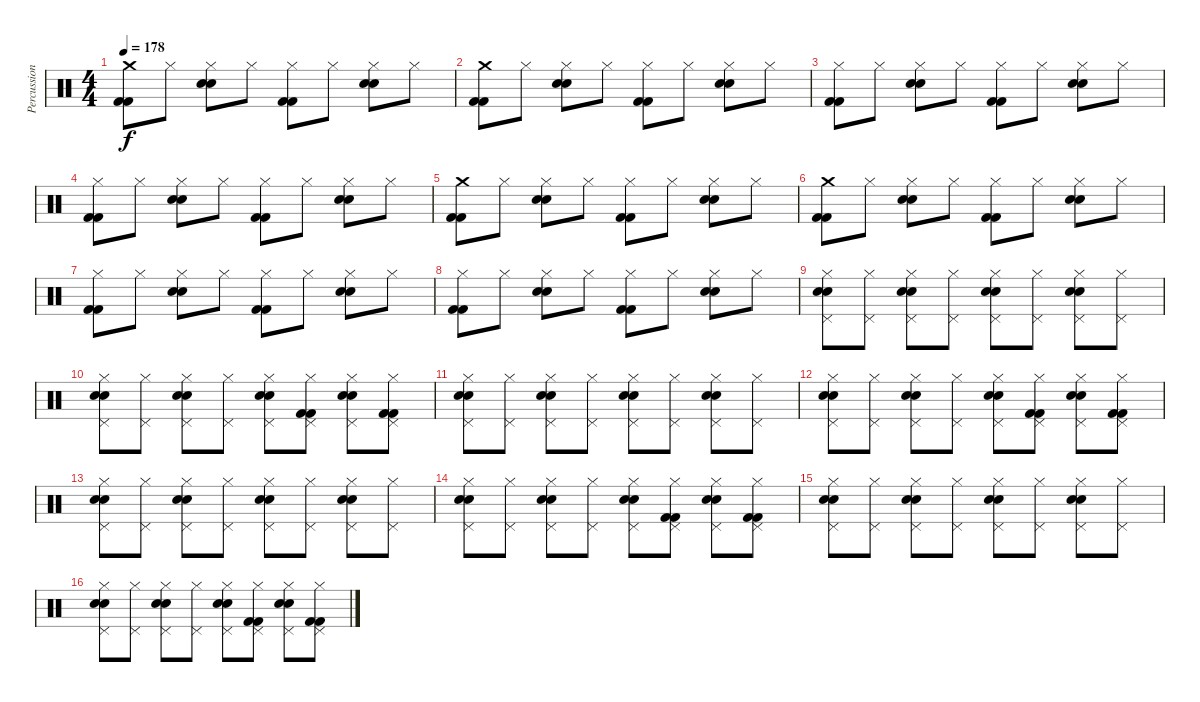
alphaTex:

\track ("Percussion" "Percussion") {instrument percussion}
\staff {score}
\articulation defaults
\ts (4 4)
\tempo 178
\clef neutral
\ks c
("Crash medium (hit)" "Kick (hit) 2" "Kick (hit) 2").8{dy f} "Hi-Hat (closed)".8 ("Hi-Hat (closed)" "Snare (hit) 2" "Snare (hit) 2").8 "Hi-Hat (closed)".8 ("Hi-Hat (closed)" "Kick (hit) 2" "Kick (hit) 2").8 "Hi-Hat (closed)".8 ("Hi-Hat (closed)" "Snare (hit) 2" "Snare (hit) 2").8 "Hi-Hat (closed)".8 |
("Crash medium (hit)" "Kick (hit) 2" "Kick (hit) 2").8 "Hi-Hat (closed)".8 ("Hi-Hat (closed)" "Snare (hit) 2" "Snare (hit) 2").8 "Hi-Hat (closed)".8 ("Hi-Hat (closed)" "Kick (hit) 2" "Kick (hit) 2").8 "Hi-Hat (closed)".8 ("Hi-Hat (closed)" "Snare (hit) 2" "Snare (hit) 2").8 "Hi-Hat (closed)".8 |
("Hi-Hat (closed)" "Kick (hit) 2" "Kick (hit) 2").8 "Hi-Hat (closed)".8 ("Hi-Hat (closed)" "Snare (hit) 2" "Snare (hit) 2").8 "Hi-Hat (closed)".8 ("Hi-Hat (closed)" "Kick (hit) 2" "Kick (hit) 2").8 "Hi-Hat (closed)".8 ("Hi-Hat (closed)" "Snare (hit) 2" "Snare (hit) 2").8 "Hi-Hat (closed)".8 |
("Hi-Hat (closed)" "Kick (hit) 2" "Kick (hit) 2").8 "Hi-Hat (closed)".8 ("Hi-Hat (closed)" "Snare (hit) 2" "Snare (hit) 2").8 "Hi-Hat (closed)".8 ("Hi-Hat (closed)" "Kick (hit) 2" "Kick (hit) 2").8 "Hi-Hat (closed)".8 ("Hi-Hat (closed)" "Snare (hit) 2" "Snare (hit) 2").8 "Hi-Hat (closed)".8 |
("Crash medium (hit)" "Kick (hit) 2" "Kick (hit) 2").8 "Hi-Hat (closed)".8 ("Hi-Hat (closed)" "Snare (hit) 2" "Snare (hit) 2").8 "Hi-Hat (closed)".8 ("Hi-Hat (closed)" "Kick (hit) 2" "Kick (hit) 2").8 "Hi-Hat (closed)".8 ("Hi-Hat (closed)" "Snare (hit) 2" "Snare (hit) 2").8 "Hi-Hat (closed)".8 |
("Crash medium (hit)" "Kick (hit) 2" "Kick (hit) 2").8 "Hi-Hat (closed)".8 ("Hi-Hat (closed)" "Snare (hit) 2" "Snare (hit) 2").8 "Hi-Hat (closed)".8 ("Hi-Hat (closed)" "Kick (hit) 2" "Kick (hit) 2").8 "Hi-Hat (closed)".8 ("Hi-Hat (closed)" "Snare (hit) 2" "Snare (hit) 2").8 "Hi-Hat (closed)".8 |
("Hi-Hat (closed)" "Kick (hit) 2" "Kick (hit) 2").8 "Hi-Hat (closed)".8 ("Hi-Hat (closed)" "Snare (hit) 2" "Snare (hit) 2").8 "Hi-Hat (closed)".8 ("Hi-Hat (closed)" "Kick (hit) 2" "Kick (hit) 2").8 "Hi-Hat (closed)".8 ("Hi-Hat (closed)" "Snare (hit) 2" "Snare (hit) 2").8 "Hi-Hat (closed)".8 |
("Hi-Hat (closed)" "Kick (hit) 2" "Kick (hit) 2").8 "Hi-Hat (closed)".8 ("Hi-Hat (closed)" "Snare (hit) 2" "Snare (hit) 2").8 "Hi-Hat (closed)".8 ("Hi-Hat (closed)" "Kick (hit) 2" "Kick (hit) 2").8 "Hi-Hat (closed)".8 ("Hi-Hat (closed)" "Snare (hit) 2" "Snare (hit) 2").8 "Hi-Hat (closed)".8 |
("Hi-Hat (closed)" "Pedal Hi-Hat (hit)" "Snare (hit) 2" "Snare (hit) 2").8 ("Hi-Hat (closed)" "Pedal Hi-Hat (hit)").8 ("Hi-Hat (closed)" "Pedal Hi-Hat (hit)" "Snare (hit) 2" "Snare (hit) 2").8 ("Hi-Hat (closed)" "Pedal Hi-Hat (hit)").8 ("Hi-Hat (closed)" "Pedal Hi-Hat (hit)" "Snare (hit) 2" "Snare (hit) 2").8 ("Hi-Hat (closed)" "Pedal Hi-Hat (hit)").8 ("Hi-Hat (closed)" "Pedal Hi-Hat (hit)" "Snare (hit) 2" "Snare (hit) 2").8 ("Hi-Hat (closed)" "Pedal Hi-Hat (hit)").8 |
("Hi-Hat (closed)" "Pedal Hi-Hat (hit)" "Snare (hit) 2" "Snare (hit) 2").8 ("Hi-Hat (closed)" "Pedal Hi-Hat (hit)").8 ("Hi-Hat (closed)" "Pedal Hi-Hat (hit)" "Snare (hit) 2" "Snare (hit) 2").8 ("Hi-Hat (closed)" "Pedal Hi-Hat (hit)").8 ("Hi-Hat (closed)" "Pedal Hi-Hat (hit)" "Snare (hit) 2" "Snare (hit) 2").8 ("Hi-Hat (closed)" "Pedal Hi-Hat (hit)" "Kick (hit) 2" "Kick (hit) 2").8 ("Hi-Hat (closed)" "Pedal Hi-Hat (hit)" "Snare (hit) 2" "Snare (hit) 2").8 ("Hi-Hat (closed)" "Pedal Hi-Hat (hit)" "Kick (hit) 2" "Kick (hit) 2").8 |
("Hi-Hat (closed)" "Pedal Hi-Hat (hit)" "Snare (hit) 2" "Snare (hit) 2").8 ("Hi-Hat (closed)" "Pedal Hi-Hat (hit)").8 ("Hi-Hat (closed)" "Pedal Hi-Hat (hit)" "Snare (hit) 2" "Snare (hit) 2").8 ("Hi-Hat (closed)" "Pedal Hi-Hat (hit)").8 ("Hi-Hat (closed)" "Pedal Hi-Hat (hit)" "Snare (hit) 2" "Snare (hit) 2").8 ("Hi-Hat (closed)" "Pedal Hi-Hat (hit)").8 ("Hi-Hat (closed)" "Pedal Hi-Hat (hit)" "Snare (hit) 2" "Snare (hit) 2").8 ("Hi-Hat (closed)" "Pedal Hi-Hat (hit)").8 |
("Hi-Hat (closed)" "Pedal Hi-Hat (hit)" "Snare (hit) 2" "Snare (hit) 2").8 ("Hi-Hat (closed)" "Pedal Hi-Hat (hit)").8 ("Hi-Hat (closed)" "Pedal Hi-Hat (hit)" "Snare (hit) 2" "Snare (hit) 2").8 ("Hi-Hat (closed)" "Pedal Hi-Hat (hit)").8 ("Hi-Hat (closed)" "Pedal Hi-Hat (hit)" "Snare (hit) 2" "Snare (hit) 2").8 ("Hi-Hat (closed)" "Pedal Hi-Hat (hit)" "Kick (hit) 2" "Kick (hit) 2").8 ("Hi-Hat (closed)" "Pedal Hi-Hat (hit)" "Snare (hit) 2" "Snare (hit) 2").8 ("Hi-Hat (closed)" "Pedal Hi-Hat (hit)" "Kick (hit) 2" "Kick (hit) 2").8 |
("Hi-Hat (closed)" "Pedal Hi-Hat (hit)" "Snare (hit) 2" "Snare (hit) 2").8 ("Hi-Hat (closed)" "Pedal Hi-Hat (hit)").8 ("Hi-Hat (closed)" "Pedal Hi-Hat (hit)" "Snare (hit) 2" "Snare (hit) 2").8 ("Hi-Hat (closed)" "Pedal Hi-Hat (hit)").8 ("Hi-Hat (closed)" "Pedal Hi-Hat (hit)" "Snare (hit) 2" "Snare (hit) 2").8 ("Hi-Hat (closed)" "Pedal Hi-Hat (hit)").8 ("Hi-Hat (closed)" "Pedal Hi-Hat (hit)" "Snare (hit) 2" "Snare (hit) 2").8 ("Hi-Hat (closed)" "Pedal Hi-Hat (hit)").8 |
("Hi-Hat (closed)" "Pedal Hi-Hat (hit)" "Snare (hit) 2" "Snare (hit) 2").8 ("Hi-Hat (closed)" "Pedal Hi-Hat (hit)").8 ("Hi-Hat (closed)" "Pedal Hi-Hat (hit)" "Snare (hit) 2" "Snare (hit) 2").8 ("Hi-Hat (closed)" "Pedal Hi-Hat (hit)").8 ("Hi-Hat (closed)" "Pedal Hi-Hat (hit)" "Snare (hit) 2" "Snare (hit) 2").8 ("Hi-Hat (closed)" "Pedal Hi-Hat (hit)" "Kick (hit) 2" "Kick (hit) 2").8 ("Hi-Hat (closed)" "Pedal Hi-Hat (hit)" "Snare (hit) 2" "Snare (hit) 2").8 ("Hi-Hat (closed)" "Pedal Hi-Hat (hit)" "Kick (hit) 2" "Kick (hit) 2").8 |
("Hi-Hat (closed)" "Pedal Hi-Hat (hit)" "Snare (hit) 2" "Snare (hit) 2").8 ("Hi-Hat (closed)" "Pedal Hi-Hat (hit)").8 ("Hi-Hat (closed)" "Pedal Hi-Hat (hit)" "Snare (hit) 2" "Snare (hit) 2").8 ("Hi-Hat (closed)" "Pedal Hi-Hat (hit)").8 ("Hi-Hat (closed)" "Pedal Hi-Hat (hit)" "Snare (hit) 2" "Snare (hit) 2").8 ("Hi-Hat (closed)" "Pedal Hi-Hat (hit)").8 ("Hi-Hat (closed)" "Pedal Hi-Hat (hit)" "Snare (hit) 2" "Snare (hit) 2").8 ("Hi-Hat (closed)" "Pedal Hi-Hat (hit)").8 |
("Hi-Hat (closed)" "Pedal Hi-Hat (hit)" "Snare (hit) 2" "Snare (hit) 2").8 ("Hi-Hat (closed)" "Pedal Hi-Hat (hit)").8 ("Hi-Hat (closed)" "Pedal Hi-Hat (hit)" "Snare (hit) 2" "Snare (hit) 2").8 ("Hi-Hat (closed)" "Pedal Hi-Hat (hit)").8 ("Hi-Hat (closed)" "Pedal Hi-Hat (hit)" "Snare (hit) 2" "Snare (hit) 2").8 ("Hi-Hat (closed)" "Pedal Hi-Hat (hit)" "Kick (hit) 2" "Kick (hit) 2").8 ("Hi-Hat (closed)" "Pedal Hi-Hat (hit)" "Snare (hit) 2" "Snare (hit) 2").8 ("Hi-Hat (closed)" "Pedal Hi-Hat (hit)" "Kick (hit) 2" "Kick (hit) 2").8
